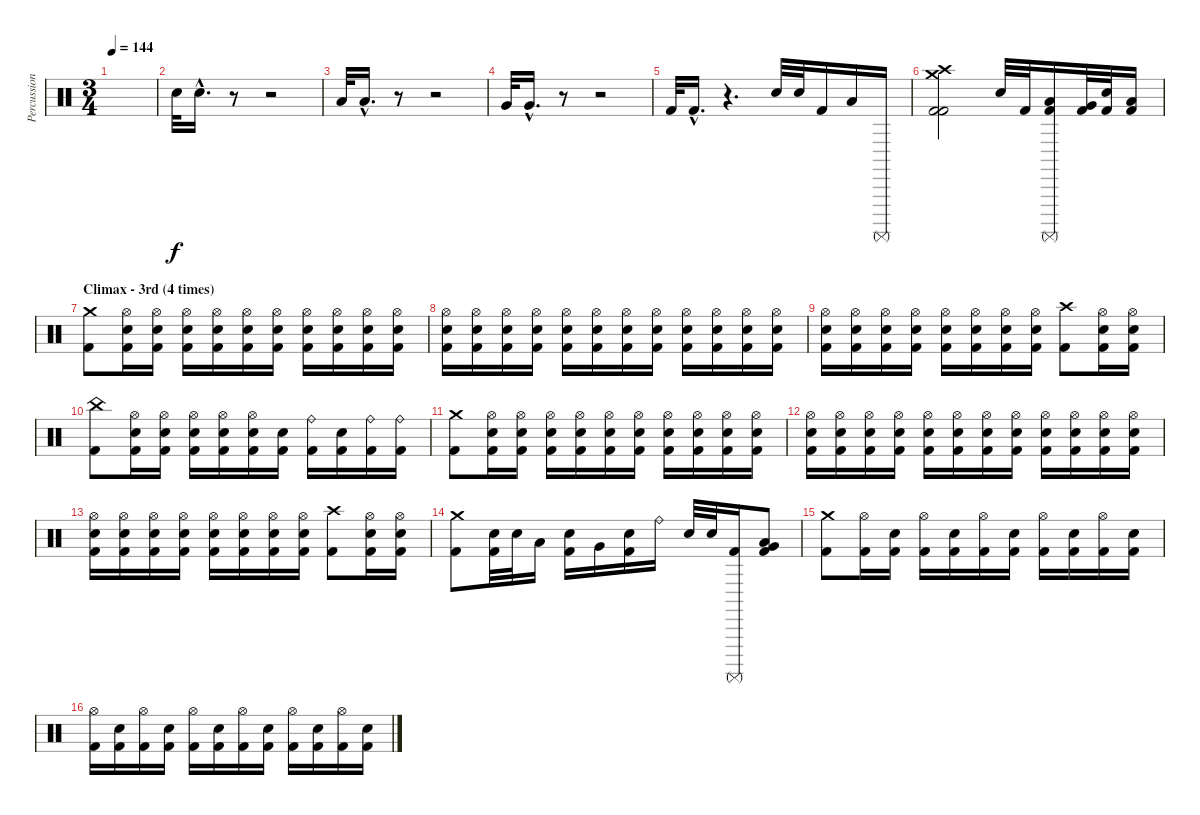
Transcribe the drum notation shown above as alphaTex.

\track ("Percussion" "Percussion") {instrument percussion}
\staff {score}
\articulation defaults
\ts (3 4)
\tempo 144
\clef neutral
\ks c
|
"Snare (hit) 2".32{balance 0} "Snare (hit) 2"{hac}.16{d} r.8 r.2{balance 8} |
"Low Tom (hit)".32{balance 16} "Low Tom (hit)"{hac}.16{d} r.8 r.2{balance 8} |
"Very Low Tom (hit)".32{balance 0} "Very Low Tom (hit)"{hac}.16{d} r.8 r.2{balance 8} |
"Kick (hit) 2".32{balance 16} "Kick (hit) 2"{hac}.16{d} r.4{d} "Electric Snare (hit)".32{balance 0} "Electric Snare (hit)".32 "Kick (hit) 2".16 "Low Tom (hit)".16{balance 16} "Surdo (mute)".16 |
("Crash medium (hit)" "Crash high (hit)" "Kick (hit) 2" "Kick (hit) 2").2{balance 8} "Electric Snare (hit)".32{balance 0} "Kick (hit) 2".32 ("Low Tom (hit)" "Surdo (mute)" "Kick (hit) 2").16 ("Very Low Tom (hit)" "Kick (hit) 2").32{balance 16} ("Electric Snare (hit)" "Kick (hit) 2").32 ("Low Tom (hit)" "Kick (hit) 2").16 |
\section ("" "Climax - 3rd (4 times)")
("Crash medium (hit)" "Kick (hit) 2").8{balance 8} ("Hi-Hat (open)" "Electric Snare (hit)" "Kick (hit) 2").16 ("Hi-Hat (open)" "Electric Snare (hit)" "Kick (hit) 2").16 ("Hi-Hat (open)" "Electric Snare (hit)" "Kick (hit) 2").16 ("Hi-Hat (open)" "Electric Snare (hit)" "Kick (hit) 2").16 ("Hi-Hat (open)" "Electric Snare (hit)" "Kick (hit) 2").16 ("Hi-Hat (open)" "Electric Snare (hit)" "Kick (hit) 2").16 ("Hi-Hat (open)" "Electric Snare (hit)" "Kick (hit) 2").16 ("Hi-Hat (open)" "Electric Snare (hit)" "Kick (hit) 2").16 ("Hi-Hat (open)" "Electric Snare (hit)" "Kick (hit) 2").16 ("Hi-Hat (open)" "Electric Snare (hit)" "Kick (hit) 2").16 |
("Hi-Hat (open)" "Electric Snare (hit)" "Kick (hit) 2").16 ("Hi-Hat (open)" "Electric Snare (hit)" "Kick (hit) 2").16 ("Hi-Hat (open)" "Electric Snare (hit)" "Kick (hit) 2").16 ("Hi-Hat (open)" "Electric Snare (hit)" "Kick (hit) 2").16 ("Hi-Hat (open)" "Electric Snare (hit)" "Kick (hit) 2").16 ("Hi-Hat (open)" "Electric Snare (hit)" "Kick (hit) 2").16 ("Hi-Hat (open)" "Electric Snare (hit)" "Kick (hit) 2").16 ("Hi-Hat (open)" "Electric Snare (hit)" "Kick (hit) 2").16 ("Hi-Hat (open)" "Electric Snare (hit)" "Kick (hit) 2").16 ("Hi-Hat (open)" "Electric Snare (hit)" "Kick (hit) 2").16 ("Hi-Hat (open)" "Electric Snare (hit)" "Kick (hit) 2").16 ("Hi-Hat (open)" "Electric Snare (hit)" "Kick (hit) 2").16 |
("Hi-Hat (open)" "Electric Snare (hit)" "Kick (hit) 2").16 ("Hi-Hat (open)" "Electric Snare (hit)" "Kick (hit) 2").16 ("Hi-Hat (open)" "Electric Snare (hit)" "Kick (hit) 2").16 ("Hi-Hat (open)" "Electric Snare (hit)" "Kick (hit) 2").16 ("Hi-Hat (open)" "Electric Snare (hit)" "Kick (hit) 2").16 ("Hi-Hat (open)" "Electric Snare (hit)" "Kick (hit) 2").16 ("Hi-Hat (open)" "Electric Snare (hit)" "Kick (hit) 2").16 ("Hi-Hat (open)" "Electric Snare (hit)" "Kick (hit) 2").16 ("Crash high (hit)" "Kick (hit) 2").8 ("Hi-Hat (open)" "Electric Snare (hit)" "Kick (hit) 2").16 ("Hi-Hat (open)" "Electric Snare (hit)" "Kick (hit) 2").16 |
("China (hit)" "Kick (hit) 2").8 ("Hi-Hat (open)" "Electric Snare (hit)" "Kick (hit) 2").16 ("Hi-Hat (open)" "Electric Snare (hit)" "Kick (hit) 2").16 ("Hi-Hat (open)" "Electric Snare (hit)" "Kick (hit) 2").16 ("Hi-Hat (open)" "Electric Snare (hit)" "Kick (hit) 2").16 ("Hi-Hat (open)" "Electric Snare (hit)" "Kick (hit) 2").16 ("Electric Snare (hit)" "Kick (hit) 2").16 ("Ride (bell)" "Kick (hit) 2").16 ("Electric Snare (hit)" "Kick (hit) 2").16 ("Ride (bell)" "Kick (hit) 2").16 ("Ride (bell)" "Kick (hit) 2").16 |
("Crash medium (hit)" "Kick (hit) 2").8{balance 8} ("Hi-Hat (open)" "Electric Snare (hit)" "Kick (hit) 2").16 ("Hi-Hat (open)" "Electric Snare (hit)" "Kick (hit) 2").16 ("Hi-Hat (open)" "Electric Snare (hit)" "Kick (hit) 2").16 ("Hi-Hat (open)" "Electric Snare (hit)" "Kick (hit) 2").16 ("Hi-Hat (open)" "Electric Snare (hit)" "Kick (hit) 2").16 ("Hi-Hat (open)" "Electric Snare (hit)" "Kick (hit) 2").16 ("Hi-Hat (open)" "Electric Snare (hit)" "Kick (hit) 2").16 ("Hi-Hat (open)" "Electric Snare (hit)" "Kick (hit) 2").16 ("Hi-Hat (open)" "Electric Snare (hit)" "Kick (hit) 2").16 ("Hi-Hat (open)" "Electric Snare (hit)" "Kick (hit) 2").16 |
("Hi-Hat (open)" "Electric Snare (hit)" "Kick (hit) 2").16 ("Hi-Hat (open)" "Electric Snare (hit)" "Kick (hit) 2").16 ("Hi-Hat (open)" "Electric Snare (hit)" "Kick (hit) 2").16 ("Hi-Hat (open)" "Electric Snare (hit)" "Kick (hit) 2").16 ("Hi-Hat (open)" "Electric Snare (hit)" "Kick (hit) 2").16 ("Hi-Hat (open)" "Electric Snare (hit)" "Kick (hit) 2").16 ("Hi-Hat (open)" "Electric Snare (hit)" "Kick (hit) 2").16 ("Hi-Hat (open)" "Electric Snare (hit)" "Kick (hit) 2").16 ("Hi-Hat (open)" "Electric Snare (hit)" "Kick (hit) 2").16 ("Hi-Hat (open)" "Electric Snare (hit)" "Kick (hit) 2").16 ("Hi-Hat (open)" "Electric Snare (hit)" "Kick (hit) 2").16 ("Hi-Hat (open)" "Electric Snare (hit)" "Kick (hit) 2").16 |
("Hi-Hat (open)" "Electric Snare (hit)" "Kick (hit) 2").16 ("Hi-Hat (open)" "Electric Snare (hit)" "Kick (hit) 2").16 ("Hi-Hat (open)" "Electric Snare (hit)" "Kick (hit) 2").16 ("Hi-Hat (open)" "Electric Snare (hit)" "Kick (hit) 2").16 ("Hi-Hat (open)" "Electric Snare (hit)" "Kick (hit) 2").16 ("Hi-Hat (open)" "Electric Snare (hit)" "Kick (hit) 2").16 ("Hi-Hat (open)" "Electric Snare (hit)" "Kick (hit) 2").16 ("Hi-Hat (open)" "Electric Snare (hit)" "Kick (hit) 2").16 ("Crash high (hit)" "Kick (hit) 2").8 ("Hi-Hat (open)" "Electric Snare (hit)" "Kick (hit) 2").16 ("Hi-Hat (open)" "Electric Snare (hit)" "Kick (hit) 2").16 |
("Crash medium (hit)" "Kick (hit) 2").8 ("Electric Snare (hit)" "Kick (hit) 2").32{balance 0} "Electric Snare (hit)".32 "Low Tom (hit)".16 ("Electric Snare (hit)" "Kick (hit) 2").16{balance 16} "Very Low Tom (hit)".16 ("Electric Snare (hit)" "Kick (hit) 2").16 "Ride (bell)".16 "Electric Snare (hit)".32{balance 0} "Electric Snare (hit)".32 ("Surdo (mute)" "Kick (hit) 2").16 ("Low Tom (hit)" "Very Low Tom (hit)" "Kick (hit) 2").8 |
("Crash medium (hit)" "Kick (hit) 2").8{balance 8} ("Hi-Hat (open)" "Kick (hit) 2").16 ("Electric Snare (hit)" "Kick (hit) 2").16 ("Hi-Hat (open)" "Kick (hit) 2").16 ("Electric Snare (hit)" "Kick (hit) 2").16 ("Hi-Hat (open)" "Kick (hit) 2").16 ("Electric Snare (hit)" "Kick (hit) 2").16 ("Hi-Hat (open)" "Kick (hit) 2").16 ("Electric Snare (hit)" "Kick (hit) 2").16 ("Hi-Hat (open)" "Kick (hit) 2").16 ("Electric Snare (hit)" "Kick (hit) 2").16 |
("Hi-Hat (open)" "Kick (hit) 2").16 ("Electric Snare (hit)" "Kick (hit) 2").16 ("Hi-Hat (open)" "Kick (hit) 2").16 ("Electric Snare (hit)" "Kick (hit) 2").16 ("Hi-Hat (open)" "Kick (hit) 2").16 ("Electric Snare (hit)" "Kick (hit) 2").16 ("Hi-Hat (open)" "Kick (hit) 2").16 ("Electric Snare (hit)" "Kick (hit) 2").16 ("Hi-Hat (open)" "Kick (hit) 2").16 ("Electric Snare (hit)" "Kick (hit) 2").16 ("Hi-Hat (open)" "Kick (hit) 2").16 ("Electric Snare (hit)" "Kick (hit) 2").16
